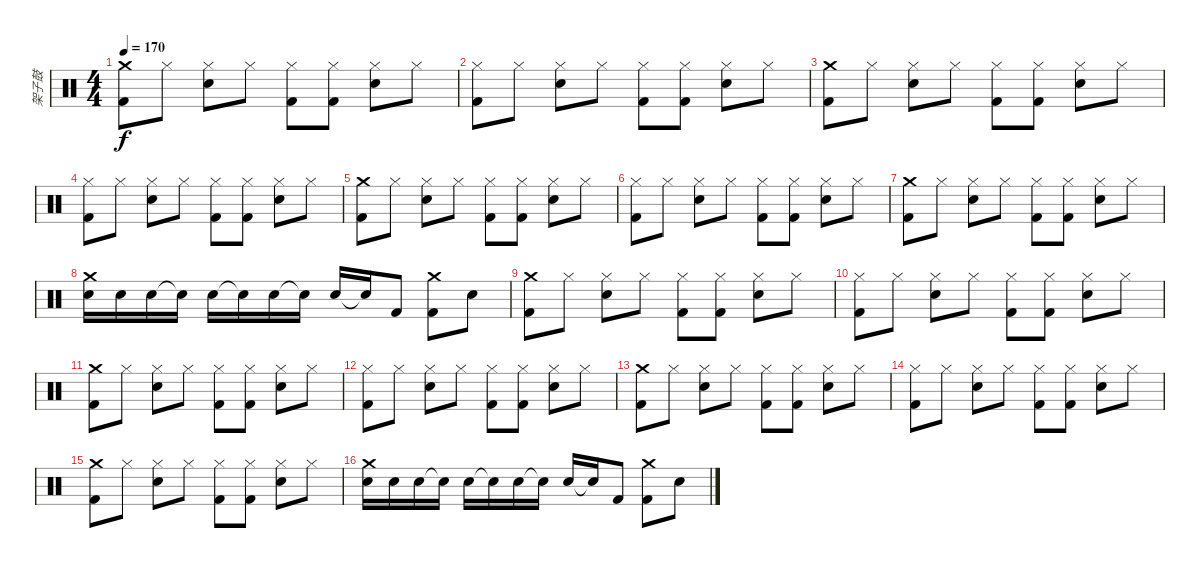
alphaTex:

\track ("架子鼓" "架子鼓") {instrument percussion}
\staff {score}
\articulation defaults
\ts (4 4)
\tempo 170
\clef neutral
\ks c
("Crash medium (hit)" "Kick (hit) 2").8{dy f} "Hi-Hat (closed)".8 ("Hi-Hat (closed)" "Snare (hit) 2").8 "Hi-Hat (closed)".8 ("Hi-Hat (closed)" "Kick (hit) 2").8 ("Hi-Hat (closed)" "Kick (hit) 2").8 ("Hi-Hat (closed)" "Snare (hit) 2").8 "Hi-Hat (closed)".8 |
("Hi-Hat (closed)" "Kick (hit) 2").8 "Hi-Hat (closed)".8 ("Hi-Hat (closed)" "Snare (hit) 2").8 "Hi-Hat (closed)".8 ("Hi-Hat (closed)" "Kick (hit) 2").8 ("Hi-Hat (closed)" "Kick (hit) 2").8 ("Hi-Hat (closed)" "Snare (hit) 2").8 "Hi-Hat (closed)".8 |
("Crash medium (hit)" "Kick (hit) 2").8 "Hi-Hat (closed)".8 ("Hi-Hat (closed)" "Snare (hit) 2").8 "Hi-Hat (closed)".8 ("Hi-Hat (closed)" "Kick (hit) 2").8 ("Hi-Hat (closed)" "Kick (hit) 2").8 ("Hi-Hat (closed)" "Snare (hit) 2").8 "Hi-Hat (closed)".8 |
("Hi-Hat (closed)" "Kick (hit) 2").8 "Hi-Hat (closed)".8 ("Hi-Hat (closed)" "Snare (hit) 2").8 "Hi-Hat (closed)".8 ("Hi-Hat (closed)" "Kick (hit) 2").8 ("Hi-Hat (closed)" "Kick (hit) 2").8 ("Hi-Hat (closed)" "Snare (hit) 2").8 "Hi-Hat (closed)".8 |
("Crash medium (hit)" "Kick (hit) 2").8 "Hi-Hat (closed)".8 ("Hi-Hat (closed)" "Snare (hit) 2").8 "Hi-Hat (closed)".8 ("Hi-Hat (closed)" "Kick (hit) 2").8 ("Hi-Hat (closed)" "Kick (hit) 2").8 ("Hi-Hat (closed)" "Snare (hit) 2").8 "Hi-Hat (closed)".8 |
("Hi-Hat (closed)" "Kick (hit) 2").8 "Hi-Hat (closed)".8 ("Hi-Hat (closed)" "Snare (hit) 2").8 "Hi-Hat (closed)".8 ("Hi-Hat (closed)" "Kick (hit) 2").8 ("Hi-Hat (closed)" "Kick (hit) 2").8 ("Hi-Hat (closed)" "Snare (hit) 2").8 "Hi-Hat (closed)".8 |
("Crash medium (hit)" "Kick (hit) 2").8 "Hi-Hat (closed)".8 ("Hi-Hat (closed)" "Snare (hit) 2").8 "Hi-Hat (closed)".8 ("Hi-Hat (closed)" "Kick (hit) 2").8 ("Hi-Hat (closed)" "Kick (hit) 2").8 ("Hi-Hat (closed)" "Snare (hit) 2").8 "Hi-Hat (closed)".8 |
("Crash medium (hit)" "Snare (hit) 2").16 "Snare (hit) 2".16 "Snare (hit) 2".16 "Snare (hit)"{t}.16 "Snare (hit) 2".16 "Snare (hit)"{t}.16 "Snare (hit) 2".16 "Snare (hit)"{t}.16 "Snare (hit) 2".16 "Snare (hit)"{t}.16 "Kick (hit) 2".8 ("Crash medium (hit)" "Kick (hit) 2").8 "Snare (hit) 2".8 |
("Crash medium (hit)" "Kick (hit) 2").8 "Hi-Hat (closed)".8 ("Hi-Hat (closed)" "Snare (hit) 2").8 "Hi-Hat (closed)".8 ("Hi-Hat (closed)" "Kick (hit) 2").8 ("Hi-Hat (closed)" "Kick (hit) 2").8 ("Hi-Hat (closed)" "Snare (hit) 2").8 "Hi-Hat (closed)".8 |
("Hi-Hat (closed)" "Kick (hit) 2").8 "Hi-Hat (closed)".8 ("Hi-Hat (closed)" "Snare (hit) 2").8 "Hi-Hat (closed)".8 ("Hi-Hat (closed)" "Kick (hit) 2").8 ("Hi-Hat (closed)" "Kick (hit) 2").8 ("Hi-Hat (closed)" "Snare (hit) 2").8 "Hi-Hat (closed)".8 |
("Crash medium (hit)" "Kick (hit) 2").8 "Hi-Hat (closed)".8 ("Hi-Hat (closed)" "Snare (hit) 2").8 "Hi-Hat (closed)".8 ("Hi-Hat (closed)" "Kick (hit) 2").8 ("Hi-Hat (closed)" "Kick (hit) 2").8 ("Hi-Hat (closed)" "Snare (hit) 2").8 "Hi-Hat (closed)".8 |
("Hi-Hat (closed)" "Kick (hit) 2").8 "Hi-Hat (closed)".8 ("Hi-Hat (closed)" "Snare (hit) 2").8 "Hi-Hat (closed)".8 ("Hi-Hat (closed)" "Kick (hit) 2").8 ("Hi-Hat (closed)" "Kick (hit) 2").8 ("Hi-Hat (closed)" "Snare (hit) 2").8 "Hi-Hat (closed)".8 |
("Crash medium (hit)" "Kick (hit) 2").8 "Hi-Hat (closed)".8 ("Hi-Hat (closed)" "Snare (hit) 2").8 "Hi-Hat (closed)".8 ("Hi-Hat (closed)" "Kick (hit) 2").8 ("Hi-Hat (closed)" "Kick (hit) 2").8 ("Hi-Hat (closed)" "Snare (hit) 2").8 "Hi-Hat (closed)".8 |
("Hi-Hat (closed)" "Kick (hit) 2").8 "Hi-Hat (closed)".8 ("Hi-Hat (closed)" "Snare (hit) 2").8 "Hi-Hat (closed)".8 ("Hi-Hat (closed)" "Kick (hit) 2").8 ("Hi-Hat (closed)" "Kick (hit) 2").8 ("Hi-Hat (closed)" "Snare (hit) 2").8 "Hi-Hat (closed)".8 |
("Crash medium (hit)" "Kick (hit) 2").8 "Hi-Hat (closed)".8 ("Hi-Hat (closed)" "Snare (hit) 2").8 "Hi-Hat (closed)".8 ("Hi-Hat (closed)" "Kick (hit) 2").8 ("Hi-Hat (closed)" "Kick (hit) 2").8 ("Hi-Hat (closed)" "Snare (hit) 2").8 "Hi-Hat (closed)".8 |
("Crash medium (hit)" "Snare (hit) 2").16 "Snare (hit) 2".16 "Snare (hit) 2".16 "Snare (hit)"{t}.16 "Snare (hit) 2".16 "Snare (hit)"{t}.16 "Snare (hit) 2".16 "Snare (hit)"{t}.16 "Snare (hit) 2".16 "Snare (hit)"{t}.16 "Kick (hit) 2".8 ("Crash medium (hit)" "Kick (hit) 2").8 "Snare (hit) 2".8
